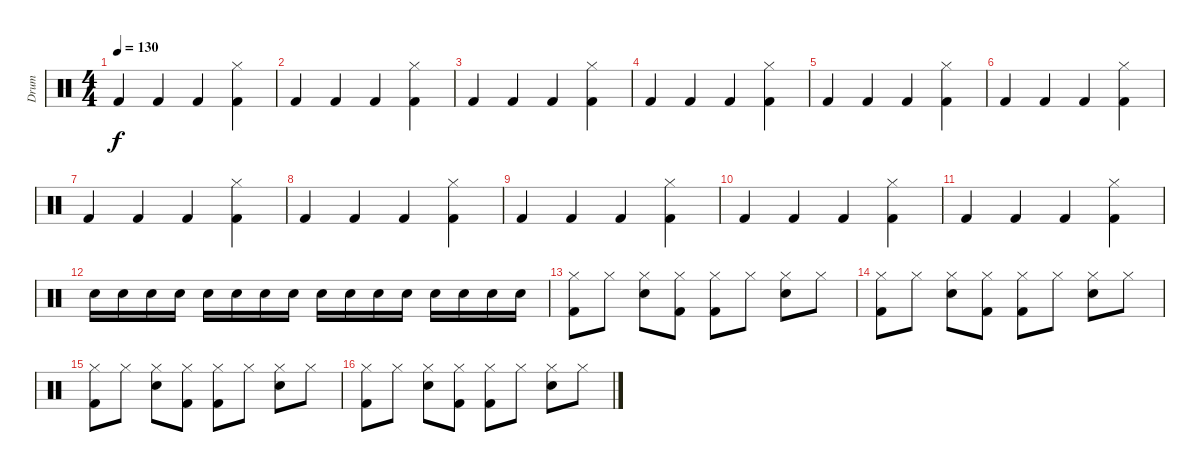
\track ("Drum" "Drum") {instrument percussion}
\staff {score}
\articulation defaults
\ts (4 4)
\tempo 130
\clef neutral
\ks c "Kick (hit) 2".4{dy f} "Kick (hit) 2".4 "Kick (hit) 2".4
("Hi-Hat (closed)" "Kick (hit) 2").4 |
"Kick (hit) 2".4 "Kick (hit) 2".4 "Kick (hit) 2".4 ("Hi-Hat (closed)" "Kick (hit) 2").4 |
"Kick (hit) 2".4 "Kick (hit) 2".4 "Kick (hit) 2".4 ("Hi-Hat (closed)" "Kick (hit) 2").4 |
"Kick (hit) 2".4 "Kick (hit) 2".4 "Kick (hit) 2".4 ("Hi-Hat (closed)" "Kick (hit) 2").4 |
"Kick (hit) 2".4 "Kick (hit) 2".4 "Kick (hit) 2".4 ("Hi-Hat (closed)" "Kick (hit) 2").4 |
"Kick (hit) 2".4 "Kick (hit) 2".4 "Kick (hit) 2".4 ("Hi-Hat (closed)" "Kick (hit) 2").4 |
"Kick (hit) 2".4 "Kick (hit) 2".4 "Kick (hit) 2".4 ("Hi-Hat (closed)" "Kick (hit) 2").4 |
"Kick (hit) 2".4 "Kick (hit) 2".4 "Kick (hit) 2".4 ("Hi-Hat (closed)" "Kick (hit) 2").4 |
"Kick (hit) 2".4 "Kick (hit) 2".4 "Kick (hit) 2".4 ("Hi-Hat (closed)" "Kick (hit) 2").4 |
"Kick (hit) 2".4 "Kick (hit) 2".4 "Kick (hit) 2".4 ("Hi-Hat (closed)" "Kick (hit) 2").4 |
"Kick (hit) 2".4 "Kick (hit) 2".4 "Kick (hit) 2".4 ("Hi-Hat (closed)" "Kick (hit) 2").4 |
"Electric Snare (hit)".16 "Electric Snare (hit)".16 "Electric Snare (hit)".16 "Electric Snare (hit)".16 "Electric Snare (hit)".16 "Electric Snare (hit)".16 "Electric Snare (hit)".16 "Electric Snare (hit)".16 "Electric Snare (hit)".16 "Electric Snare (hit)".16 "Electric Snare (hit)".16 "Electric Snare (hit)".16 "Electric Snare (hit)".16 "Electric Snare (hit)".16 "Electric Snare (hit)".16 "Electric Snare (hit)".16 |
("Hi-Hat (closed)" "Kick (hit) 2").8 "Hi-Hat (closed)".8 ("Hi-Hat (closed)" "Electric Snare (hit)").8 ("Hi-Hat (closed)" "Kick (hit) 2").8 ("Hi-Hat (closed)" "Kick (hit) 2").8 "Hi-Hat (closed)".8 ("Hi-Hat (closed)" "Electric Snare (hit)").8 "Hi-Hat (closed)".8 |
("Hi-Hat (closed)" "Kick (hit) 2").8 "Hi-Hat (closed)".8 ("Hi-Hat (closed)" "Electric Snare (hit)").8 ("Hi-Hat (closed)" "Kick (hit) 2").8 ("Hi-Hat (closed)" "Kick (hit) 2").8 "Hi-Hat (closed)".8 ("Hi-Hat (closed)" "Electric Snare (hit)").8 "Hi-Hat (closed)".8 |
("Hi-Hat (closed)" "Kick (hit) 2").8 "Hi-Hat (closed)".8 ("Hi-Hat (closed)" "Electric Snare (hit)").8 ("Hi-Hat (closed)" "Kick (hit) 2").8 ("Hi-Hat (closed)" "Kick (hit) 2").8 "Hi-Hat (closed)".8 ("Hi-Hat (closed)" "Electric Snare (hit)").8 "Hi-Hat (closed)".8 |
("Hi-Hat (closed)" "Kick (hit) 2").8 "Hi-Hat (closed)".8 ("Hi-Hat (closed)" "Electric Snare (hit)").8 ("Hi-Hat (closed)" "Kick (hit) 2").8 ("Hi-Hat (closed)" "Kick (hit) 2").8 "Hi-Hat (closed)".8 ("Hi-Hat (closed)" "Electric Snare (hit)").8 "Hi-Hat (closed)".8
